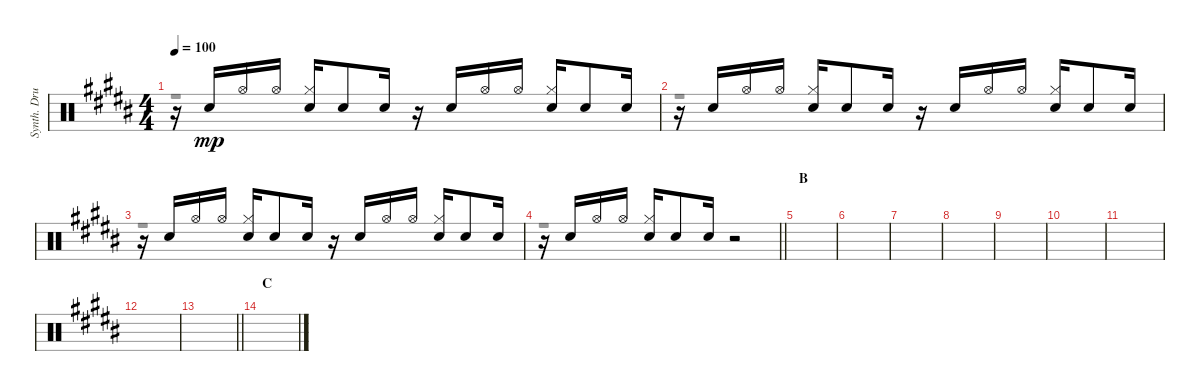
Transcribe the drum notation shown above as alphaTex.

\track ("Synth. Drums" "Synth. Dru") {instrument percussion}
\staff {score}
\articulation defaults
\voice
\ts (4 4)
\tempo 100
\clef neutral
\ks b
r.16{dy mp} "Snare (hit) 2".16 "Hi-Hat (open)".16 "Hi-Hat (open)".16 ("Hi-Hat (closed)" "Snare (hit) 2").16 "Snare (hit) 2".8 "Snare (hit) 2".16 r.16 "Snare (hit) 2".16 "Hi-Hat (open)".16 "Hi-Hat (open)".16 ("Hi-Hat (closed)" "Snare (hit) 2").16 "Snare (hit) 2".8 "Snare (hit) 2".16 |
r.16 "Snare (hit) 2".16 "Hi-Hat (open)".16 "Hi-Hat (open)".16 ("Hi-Hat (closed)" "Snare (hit) 2").16 "Snare (hit) 2".8 "Snare (hit) 2".16 r.16 "Snare (hit) 2".16 "Hi-Hat (open)".16 "Hi-Hat (open)".16 ("Hi-Hat (closed)" "Snare (hit) 2").16 "Snare (hit) 2".8 "Snare (hit) 2".16 |
r.16 "Snare (hit) 2".16 "Hi-Hat (open)".16 "Hi-Hat (open)".16 ("Hi-Hat (closed)" "Snare (hit) 2").16 "Snare (hit) 2".8 "Snare (hit) 2".16 r.16 "Snare (hit) 2".16 "Hi-Hat (open)".16 "Hi-Hat (open)".16 ("Hi-Hat (closed)" "Snare (hit) 2").16 "Snare (hit) 2".8 "Snare (hit) 2".16 |
\barLineRight lightlight
r.16 "Snare (hit) 2".16 "Hi-Hat (open)".16 "Hi-Hat (open)".16 ("Hi-Hat (closed)" "Snare (hit) 2").16 "Snare (hit) 2".8 "Snare (hit) 2".16 r.2 |
\section ("" "B")
|
|
|
|
|
|
|
|
\barLineRight lightlight
|
\section ("" "C")
|
|
\voice
\clef neutral
\ottava regular
\simile none
\ks b
r.1{dy f} |
r.1 |
r.1 |
\barLineRight lightlight
r.1 |
|
|
|
|
|
|
|
|
\barLineRight lightlight
|
|
|
